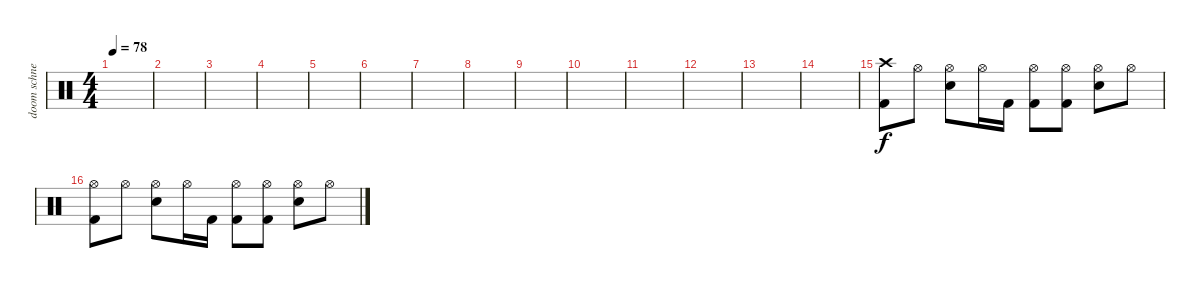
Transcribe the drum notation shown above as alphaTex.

\track ("doom schneider" "doom schne") {instrument percussion}
\staff {score}
\articulation defaults
\ts (4 4)
\tempo 78
\clef neutral
\ks c
|
|
|
|
|
|
|
|
|
|
|
|
|
|
("Crash high (hit)" "Kick (hit) 2").8 "Hi-Hat (open)".8 ("Hi-Hat (open)" "Snare (hit) 2").8 "Hi-Hat (open)".16 "Kick (hit) 2".16 ("Hi-Hat (open)" "Kick (hit) 2").8 ("Hi-Hat (open)" "Kick (hit) 2").8 ("Hi-Hat (open)" "Snare (hit) 2").8 "Hi-Hat (open)".8 |
("Hi-Hat (open)" "Kick (hit) 2").8 "Hi-Hat (open)".8 ("Hi-Hat (open)" "Snare (hit) 2").8 "Hi-Hat (open)".16 "Kick (hit) 2".16 ("Hi-Hat (open)" "Kick (hit) 2").8 ("Hi-Hat (open)" "Kick (hit) 2").8 ("Hi-Hat (open)" "Snare (hit) 2").8 "Hi-Hat (open)".8
